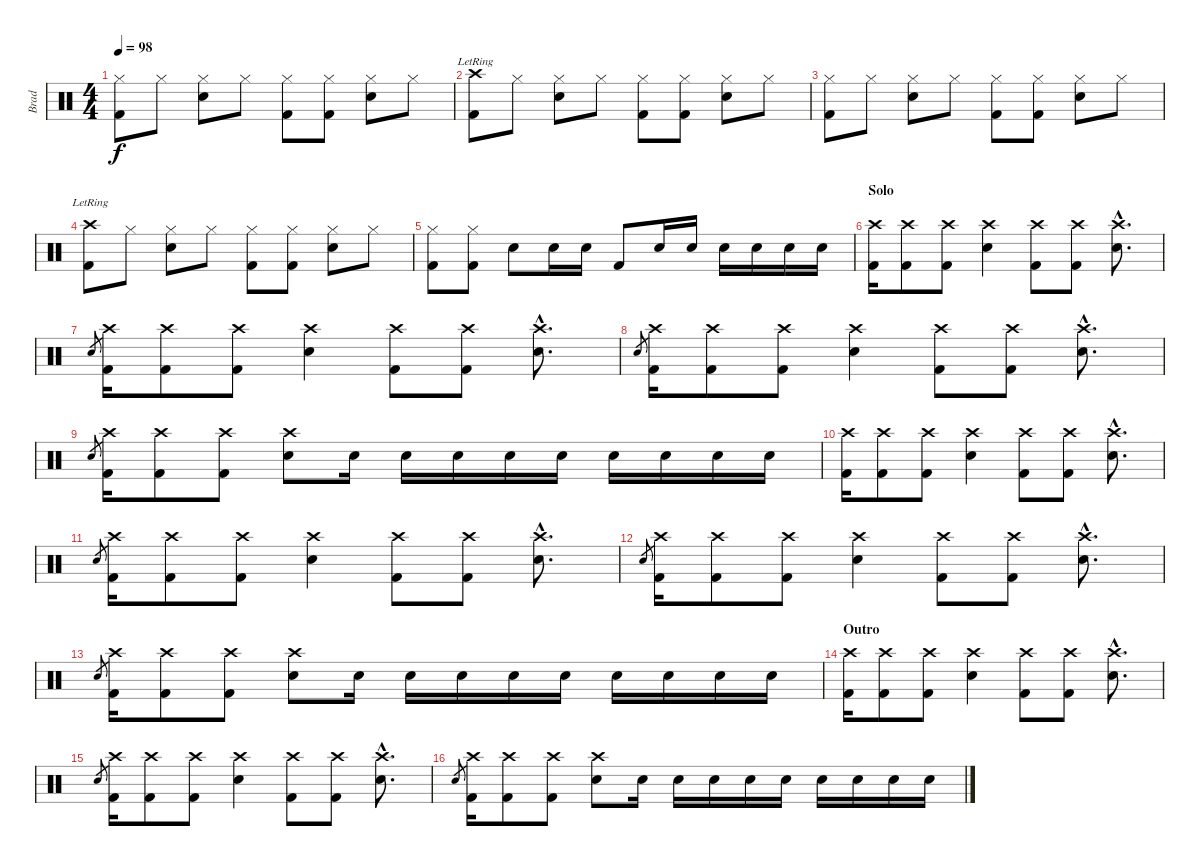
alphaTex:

\track ("Brad" "Brad") {instrument percussion}
\staff {score}
\articulation defaults
\ts (4 4)
\tempo 98
\clef neutral
\ks c
("Hi-Hat (closed)" "Kick (hit) 2").8{dy f} "Hi-Hat (closed)".8 ("Hi-Hat (closed)" "Snare (hit) 2").8 "Hi-Hat (closed)".8 ("Hi-Hat (closed)" "Kick (hit) 2").8 ("Hi-Hat (closed)" "Kick (hit) 2").8 ("Hi-Hat (closed)" "Snare (hit) 2").8 "Hi-Hat (closed)".8 |
("Crash high (hit)"{lr} "Kick (hit) 2").8 "Hi-Hat (closed)".8 ("Hi-Hat (closed)" "Snare (hit) 2").8 "Hi-Hat (closed)".8 ("Hi-Hat (closed)" "Kick (hit) 2").8 ("Hi-Hat (closed)" "Kick (hit) 2").8 ("Hi-Hat (closed)" "Snare (hit) 2").8 "Hi-Hat (closed)".8 |
("Hi-Hat (closed)" "Kick (hit) 2").8 "Hi-Hat (closed)".8 ("Hi-Hat (closed)" "Snare (hit) 2").8 "Hi-Hat (closed)".8 ("Hi-Hat (closed)" "Kick (hit) 2").8 ("Hi-Hat (closed)" "Kick (hit) 2").8 ("Hi-Hat (closed)" "Snare (hit) 2").8 "Hi-Hat (closed)".8 |
("Crash high (hit)"{lr} "Kick (hit) 2").8 "Hi-Hat (closed)".8 ("Hi-Hat (closed)" "Snare (hit) 2").8 "Hi-Hat (closed)".8 ("Hi-Hat (closed)" "Kick (hit) 2").8 ("Hi-Hat (closed)" "Kick (hit) 2").8 ("Hi-Hat (closed)" "Snare (hit) 2").8 "Hi-Hat (closed)".8 |
("Hi-Hat (closed)" "Kick (hit) 2").8 ("Hi-Hat (closed)" "Kick (hit) 2").8 "Snare (hit) 2".8 "Snare (hit) 2".16 "Snare (hit) 2".16 "Kick (hit) 2".8 "Snare (hit) 2".16 "Snare (hit) 2".16 "Snare (hit) 2".16 "Snare (hit) 2".16 "Snare (hit) 2".16 "Snare (hit) 2".16 |
\section ("" "Solo")
("Crash high (hit)" "Kick (hit) 2").16 ("Crash high (hit)" "Kick (hit) 2").8 ("Crash high (hit)" "Kick (hit) 2").8 ("Crash high (hit)" "Snare (hit) 2").4 ("Crash high (hit)" "Kick (hit) 2").8 ("Crash high (hit)" "Kick (hit) 2").8 ("Crash high (hit)"{hac} "Snare (hit) 2"{hac}).8{d} |
"Snare (hit) 2".8{gr} ("Crash high (hit)" "Kick (hit) 2").16 ("Crash high (hit)" "Kick (hit) 2").8 ("Crash high (hit)" "Kick (hit) 2").8 ("Crash high (hit)" "Snare (hit) 2").4 ("Crash high (hit)" "Kick (hit) 2").8 ("Crash high (hit)" "Kick (hit) 2").8 ("Crash high (hit)"{hac} "Snare (hit) 2"{hac}).8{d} |
"Snare (hit) 2".8{gr} ("Crash high (hit)" "Kick (hit) 2").16 ("Crash high (hit)" "Kick (hit) 2").8 ("Crash high (hit)" "Kick (hit) 2").8 ("Crash high (hit)" "Snare (hit) 2").4 ("Crash high (hit)" "Kick (hit) 2").8 ("Crash high (hit)" "Kick (hit) 2").8 ("Crash high (hit)"{hac} "Snare (hit) 2"{hac}).8{d} |
"Snare (hit) 2".8{gr} ("Crash high (hit)" "Kick (hit) 2").16 ("Crash high (hit)" "Kick (hit) 2").8 ("Crash high (hit)" "Kick (hit) 2").8 ("Crash high (hit)" "Snare (hit) 2").8 "Snare (hit) 2".16 "Snare (hit) 2".16 "Snare (hit) 2".16 "Snare (hit) 2".16 "Snare (hit) 2".16 "Snare (hit) 2".16 "Snare (hit) 2".16 "Snare (hit) 2".16 "Snare (hit) 2".16 |
("Crash high (hit)" "Kick (hit) 2").16 ("Crash high (hit)" "Kick (hit) 2").8 ("Crash high (hit)" "Kick (hit) 2").8 ("Crash high (hit)" "Snare (hit) 2").4 ("Crash high (hit)" "Kick (hit) 2").8 ("Crash high (hit)" "Kick (hit) 2").8 ("Crash high (hit)"{hac} "Snare (hit) 2"{hac}).8{d} |
"Snare (hit) 2".8{gr} ("Crash high (hit)" "Kick (hit) 2").16 ("Crash high (hit)" "Kick (hit) 2").8 ("Crash high (hit)" "Kick (hit) 2").8 ("Crash high (hit)" "Snare (hit) 2").4 ("Crash high (hit)" "Kick (hit) 2").8 ("Crash high (hit)" "Kick (hit) 2").8 ("Crash high (hit)"{hac} "Snare (hit) 2"{hac}).8{d} |
"Snare (hit) 2".8{gr} ("Crash high (hit)" "Kick (hit) 2").16 ("Crash high (hit)" "Kick (hit) 2").8 ("Crash high (hit)" "Kick (hit) 2").8 ("Crash high (hit)" "Snare (hit) 2").4 ("Crash high (hit)" "Kick (hit) 2").8 ("Crash high (hit)" "Kick (hit) 2").8 ("Crash high (hit)"{hac} "Snare (hit) 2"{hac}).8{d} |
"Snare (hit) 2".8{gr} ("Crash high (hit)" "Kick (hit) 2").16 ("Crash high (hit)" "Kick (hit) 2").8 ("Crash high (hit)" "Kick (hit) 2").8 ("Crash high (hit)" "Snare (hit) 2").8 "Snare (hit) 2".16 "Snare (hit) 2".16 "Snare (hit) 2".16 "Snare (hit) 2".16 "Snare (hit) 2".16 "Snare (hit) 2".16 "Snare (hit) 2".16 "Snare (hit) 2".16 "Snare (hit) 2".16 |
\section ("" "Outro")
("Crash high (hit)" "Kick (hit) 2").16 ("Crash high (hit)" "Kick (hit) 2").8 ("Crash high (hit)" "Kick (hit) 2").8 ("Crash high (hit)" "Snare (hit) 2").4 ("Crash high (hit)" "Kick (hit) 2").8 ("Crash high (hit)" "Kick (hit) 2").8 ("Crash high (hit)"{hac} "Snare (hit) 2"{hac}).8{d} |
"Snare (hit) 2".8{gr} ("Crash high (hit)" "Kick (hit) 2").16 ("Crash high (hit)" "Kick (hit) 2").8 ("Crash high (hit)" "Kick (hit) 2").8 ("Crash high (hit)" "Snare (hit) 2").4 ("Crash high (hit)" "Kick (hit) 2").8 ("Crash high (hit)" "Kick (hit) 2").8 ("Crash high (hit)"{hac} "Snare (hit) 2"{hac}).8{d} |
"Snare (hit) 2".8{gr} ("Crash high (hit)" "Kick (hit) 2").16 ("Crash high (hit)" "Kick (hit) 2").8 ("Crash high (hit)" "Kick (hit) 2").8 ("Crash high (hit)" "Snare (hit) 2").8 "Snare (hit) 2".16 "Snare (hit) 2".16 "Snare (hit) 2".16 "Snare (hit) 2".16 "Snare (hit) 2".16 "Snare (hit) 2".16 "Snare (hit) 2".16 "Snare (hit) 2".16 "Snare (hit) 2".16
